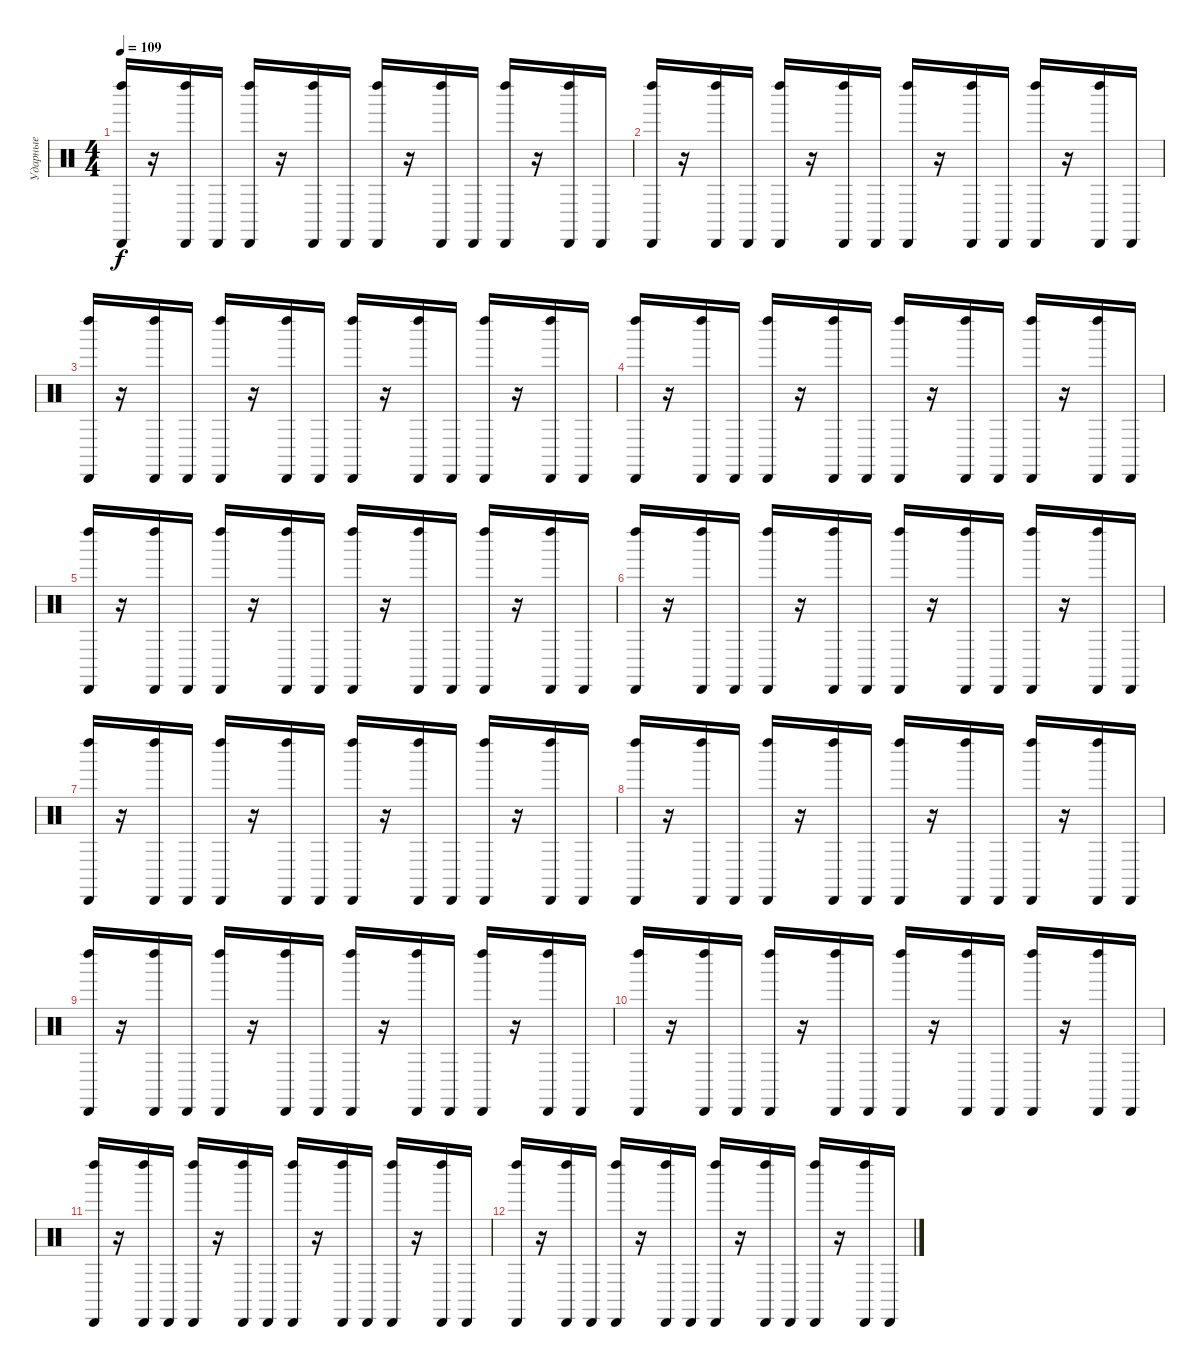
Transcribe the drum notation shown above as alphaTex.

\track ("Ударные" "Ударные") {instrument percussion}
\staff {score}
\articulation defaults
\ts (4 4)
\tempo 109
\clef neutral
\ks c
("Left Maraca (hit)" "Cabasa (hit)").16{dy f} r.16 ("Left Maraca (hit)" "Cabasa (hit)").16 "Cabasa (hit)".16 ("Left Maraca (hit)" "Cabasa (hit)").16 r.16 ("Left Maraca (hit)" "Cabasa (hit)").16 "Cabasa (hit)".16 ("Left Maraca (hit)" "Cabasa (hit)").16 r.16 ("Left Maraca (hit)" "Cabasa (hit)").16 "Cabasa (hit)".16 ("Left Maraca (hit)" "Cabasa (hit)").16 r.16 ("Left Maraca (hit)" "Cabasa (hit)").16 "Cabasa (hit)".16 |
("Left Maraca (hit)" "Cabasa (hit)").16 r.16 ("Left Maraca (hit)" "Cabasa (hit)").16 "Cabasa (hit)".16 ("Left Maraca (hit)" "Cabasa (hit)").16 r.16 ("Left Maraca (hit)" "Cabasa (hit)").16 "Cabasa (hit)".16 ("Left Maraca (hit)" "Cabasa (hit)").16 r.16 ("Left Maraca (hit)" "Cabasa (hit)").16 "Cabasa (hit)".16 ("Left Maraca (hit)" "Cabasa (hit)").16 r.16 ("Left Maraca (hit)" "Cabasa (hit)").16 "Cabasa (hit)".16 |
("Left Maraca (hit)" "Cabasa (hit)").16 r.16 ("Left Maraca (hit)" "Cabasa (hit)").16 "Cabasa (hit)".16 ("Left Maraca (hit)" "Cabasa (hit)").16 r.16 ("Left Maraca (hit)" "Cabasa (hit)").16 "Cabasa (hit)".16 ("Left Maraca (hit)" "Cabasa (hit)").16 r.16 ("Left Maraca (hit)" "Cabasa (hit)").16 "Cabasa (hit)".16 ("Left Maraca (hit)" "Cabasa (hit)").16 r.16 ("Left Maraca (hit)" "Cabasa (hit)").16 "Cabasa (hit)".16 |
("Left Maraca (hit)" "Cabasa (hit)").16 r.16 ("Left Maraca (hit)" "Cabasa (hit)").16 "Cabasa (hit)".16 ("Left Maraca (hit)" "Cabasa (hit)").16 r.16 ("Left Maraca (hit)" "Cabasa (hit)").16 "Cabasa (hit)".16 ("Left Maraca (hit)" "Cabasa (hit)").16 r.16 ("Left Maraca (hit)" "Cabasa (hit)").16 "Cabasa (hit)".16 ("Left Maraca (hit)" "Cabasa (hit)").16 r.16 ("Left Maraca (hit)" "Cabasa (hit)").16 "Cabasa (hit)".16 |
("Left Maraca (hit)" "Cabasa (hit)").16 r.16 ("Left Maraca (hit)" "Cabasa (hit)").16 "Cabasa (hit)".16 ("Left Maraca (hit)" "Cabasa (hit)").16 r.16 ("Left Maraca (hit)" "Cabasa (hit)").16 "Cabasa (hit)".16 ("Left Maraca (hit)" "Cabasa (hit)").16 r.16 ("Left Maraca (hit)" "Cabasa (hit)").16 "Cabasa (hit)".16 ("Left Maraca (hit)" "Cabasa (hit)").16 r.16 ("Left Maraca (hit)" "Cabasa (hit)").16 "Cabasa (hit)".16 |
("Left Maraca (hit)" "Cabasa (hit)").16 r.16 ("Left Maraca (hit)" "Cabasa (hit)").16 "Cabasa (hit)".16 ("Left Maraca (hit)" "Cabasa (hit)").16 r.16 ("Left Maraca (hit)" "Cabasa (hit)").16 "Cabasa (hit)".16 ("Left Maraca (hit)" "Cabasa (hit)").16 r.16 ("Left Maraca (hit)" "Cabasa (hit)").16 "Cabasa (hit)".16 ("Left Maraca (hit)" "Cabasa (hit)").16 r.16 ("Left Maraca (hit)" "Cabasa (hit)").16 "Cabasa (hit)".16 |
("Left Maraca (hit)" "Cabasa (hit)").16 r.16 ("Left Maraca (hit)" "Cabasa (hit)").16 "Cabasa (hit)".16 ("Left Maraca (hit)" "Cabasa (hit)").16 r.16 ("Left Maraca (hit)" "Cabasa (hit)").16 "Cabasa (hit)".16 ("Left Maraca (hit)" "Cabasa (hit)").16 r.16 ("Left Maraca (hit)" "Cabasa (hit)").16 "Cabasa (hit)".16 ("Left Maraca (hit)" "Cabasa (hit)").16 r.16 ("Left Maraca (hit)" "Cabasa (hit)").16 "Cabasa (hit)".16 |
("Left Maraca (hit)" "Cabasa (hit)").16 r.16 ("Left Maraca (hit)" "Cabasa (hit)").16 "Cabasa (hit)".16 ("Left Maraca (hit)" "Cabasa (hit)").16 r.16 ("Left Maraca (hit)" "Cabasa (hit)").16 "Cabasa (hit)".16 ("Left Maraca (hit)" "Cabasa (hit)").16 r.16 ("Left Maraca (hit)" "Cabasa (hit)").16 "Cabasa (hit)".16 ("Left Maraca (hit)" "Cabasa (hit)").16 r.16 ("Left Maraca (hit)" "Cabasa (hit)").16 "Cabasa (hit)".16 |
("Left Maraca (hit)" "Cabasa (hit)").16 r.16 ("Left Maraca (hit)" "Cabasa (hit)").16 "Cabasa (hit)".16 ("Left Maraca (hit)" "Cabasa (hit)").16 r.16 ("Left Maraca (hit)" "Cabasa (hit)").16 "Cabasa (hit)".16 ("Left Maraca (hit)" "Cabasa (hit)").16 r.16 ("Left Maraca (hit)" "Cabasa (hit)").16 "Cabasa (hit)".16 ("Left Maraca (hit)" "Cabasa (hit)").16 r.16 ("Left Maraca (hit)" "Cabasa (hit)").16 "Cabasa (hit)".16 |
("Left Maraca (hit)" "Cabasa (hit)").16 r.16 ("Left Maraca (hit)" "Cabasa (hit)").16 "Cabasa (hit)".16 ("Left Maraca (hit)" "Cabasa (hit)").16 r.16 ("Left Maraca (hit)" "Cabasa (hit)").16 "Cabasa (hit)".16 ("Left Maraca (hit)" "Cabasa (hit)").16 r.16 ("Left Maraca (hit)" "Cabasa (hit)").16 "Cabasa (hit)".16 ("Left Maraca (hit)" "Cabasa (hit)").16 r.16 ("Left Maraca (hit)" "Cabasa (hit)").16 "Cabasa (hit)".16 |
("Left Maraca (hit)" "Cabasa (hit)").16 r.16 ("Left Maraca (hit)" "Cabasa (hit)").16 "Cabasa (hit)".16 ("Left Maraca (hit)" "Cabasa (hit)").16 r.16 ("Left Maraca (hit)" "Cabasa (hit)").16 "Cabasa (hit)".16 ("Left Maraca (hit)" "Cabasa (hit)").16 r.16 ("Left Maraca (hit)" "Cabasa (hit)").16 "Cabasa (hit)".16 ("Left Maraca (hit)" "Cabasa (hit)").16 r.16 ("Left Maraca (hit)" "Cabasa (hit)").16 "Cabasa (hit)".16 |
("Left Maraca (hit)" "Cabasa (hit)").16 r.16 ("Left Maraca (hit)" "Cabasa (hit)").16 "Cabasa (hit)".16 ("Left Maraca (hit)" "Cabasa (hit)").16 r.16 ("Left Maraca (hit)" "Cabasa (hit)").16 "Cabasa (hit)".16 ("Left Maraca (hit)" "Cabasa (hit)").16 r.16 ("Left Maraca (hit)" "Cabasa (hit)").16 "Cabasa (hit)".16 ("Left Maraca (hit)" "Cabasa (hit)").16 r.16 ("Left Maraca (hit)" "Cabasa (hit)").16 "Cabasa (hit)".16
